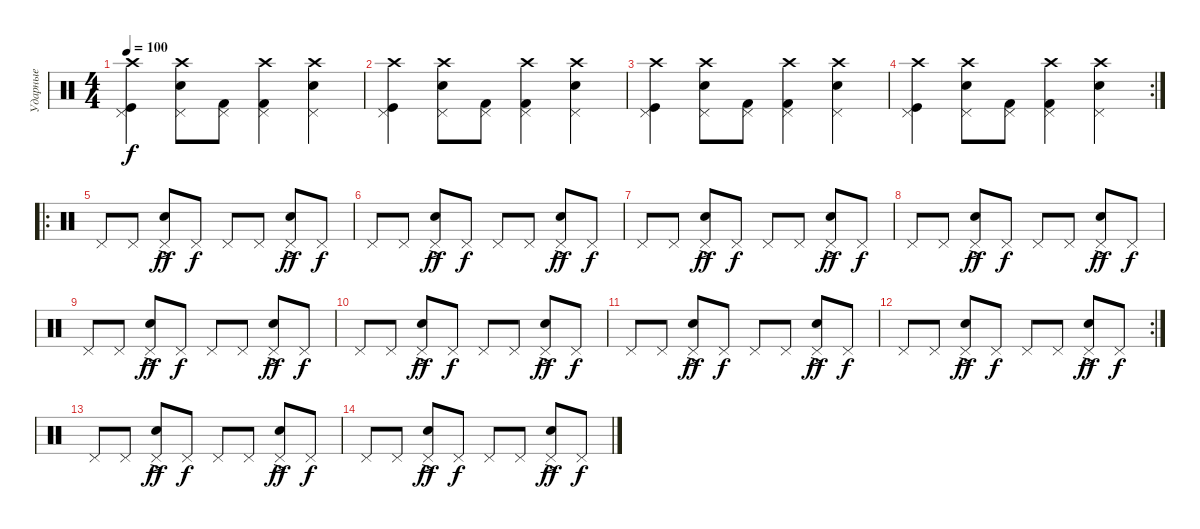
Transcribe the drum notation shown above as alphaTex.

\track ("Ударные" "Ударные") {instrument percussion}
\staff {score}
\articulation defaults
\ts (4 4)
\tempo 100
\clef neutral
\ks c
("Crash high (hit)" "Pedal Hi-Hat (hit)" "Kick (hit)").4{dy f} ("Crash high (hit)" "Pedal Hi-Hat (hit)" "Electric Snare (hit)").8 ("Pedal Hi-Hat (hit)" "Kick (hit) 2").8 ("Crash high (hit)" "Pedal Hi-Hat (hit)" "Kick (hit) 2").4 ("Crash high (hit)" "Pedal Hi-Hat (hit)" "Electric Snare (hit)").4 |
("Crash high (hit)" "Pedal Hi-Hat (hit)" "Kick (hit)").4 ("Crash high (hit)" "Pedal Hi-Hat (hit)" "Electric Snare (hit)").8 ("Pedal Hi-Hat (hit)" "Kick (hit) 2").8 ("Crash high (hit)" "Pedal Hi-Hat (hit)" "Kick (hit) 2").4 ("Crash high (hit)" "Pedal Hi-Hat (hit)" "Electric Snare (hit)").4 |
("Crash high (hit)" "Pedal Hi-Hat (hit)" "Kick (hit)").4 ("Crash high (hit)" "Pedal Hi-Hat (hit)" "Electric Snare (hit)").8 ("Pedal Hi-Hat (hit)" "Kick (hit) 2").8 ("Crash high (hit)" "Pedal Hi-Hat (hit)" "Kick (hit) 2").4 ("Crash high (hit)" "Pedal Hi-Hat (hit)" "Electric Snare (hit)").4 |
\rc 2
("Crash high (hit)" "Pedal Hi-Hat (hit)" "Kick (hit)").4 ("Crash high (hit)" "Pedal Hi-Hat (hit)" "Electric Snare (hit)").8 ("Pedal Hi-Hat (hit)" "Kick (hit) 2").8 ("Crash high (hit)" "Pedal Hi-Hat (hit)" "Kick (hit) 2").4 ("Crash high (hit)" "Pedal Hi-Hat (hit)" "Electric Snare (hit)").4 |
\ro "Pedal Hi-Hat (hit)".8 "Pedal Hi-Hat (hit)".8
("Pedal Hi-Hat (hit)"{ac} "Electric Snare (hit)").8{dy ff} "Pedal Hi-Hat (hit)".8{dy f} "Pedal Hi-Hat (hit)".8 "Pedal Hi-Hat (hit)".8 ("Pedal Hi-Hat (hit)"{ac} "Electric Snare (hit)").8{dy ff} "Pedal Hi-Hat (hit)".8{dy f} |
"Pedal Hi-Hat (hit)".8 "Pedal Hi-Hat (hit)".8 ("Pedal Hi-Hat (hit)"{ac} "Electric Snare (hit)").8{dy ff} "Pedal Hi-Hat (hit)".8{dy f} "Pedal Hi-Hat (hit)".8 "Pedal Hi-Hat (hit)".8 ("Pedal Hi-Hat (hit)"{ac} "Electric Snare (hit)").8{dy ff} "Pedal Hi-Hat (hit)".8{dy f} |
"Pedal Hi-Hat (hit)".8 "Pedal Hi-Hat (hit)".8 ("Pedal Hi-Hat (hit)"{ac} "Electric Snare (hit)").8{dy ff} "Pedal Hi-Hat (hit)".8{dy f} "Pedal Hi-Hat (hit)".8 "Pedal Hi-Hat (hit)".8 ("Pedal Hi-Hat (hit)"{ac} "Electric Snare (hit)").8{dy ff} "Pedal Hi-Hat (hit)".8{dy f} |
"Pedal Hi-Hat (hit)".8 "Pedal Hi-Hat (hit)".8 ("Pedal Hi-Hat (hit)"{ac} "Electric Snare (hit)").8{dy ff} "Pedal Hi-Hat (hit)".8{dy f} "Pedal Hi-Hat (hit)".8 "Pedal Hi-Hat (hit)".8 ("Pedal Hi-Hat (hit)"{ac} "Electric Snare (hit)").8{dy ff} "Pedal Hi-Hat (hit)".8{dy f} |
"Pedal Hi-Hat (hit)".8 "Pedal Hi-Hat (hit)".8 ("Pedal Hi-Hat (hit)"{ac} "Electric Snare (hit)").8{dy ff} "Pedal Hi-Hat (hit)".8{dy f} "Pedal Hi-Hat (hit)".8 "Pedal Hi-Hat (hit)".8 ("Pedal Hi-Hat (hit)"{ac} "Electric Snare (hit)").8{dy ff} "Pedal Hi-Hat (hit)".8{dy f} |
"Pedal Hi-Hat (hit)".8 "Pedal Hi-Hat (hit)".8 ("Pedal Hi-Hat (hit)"{ac} "Electric Snare (hit)").8{dy ff} "Pedal Hi-Hat (hit)".8{dy f} "Pedal Hi-Hat (hit)".8 "Pedal Hi-Hat (hit)".8 ("Pedal Hi-Hat (hit)"{ac} "Electric Snare (hit)").8{dy ff} "Pedal Hi-Hat (hit)".8{dy f} |
"Pedal Hi-Hat (hit)".8 "Pedal Hi-Hat (hit)".8 ("Pedal Hi-Hat (hit)"{ac} "Electric Snare (hit)").8{dy ff} "Pedal Hi-Hat (hit)".8{dy f} "Pedal Hi-Hat (hit)".8 "Pedal Hi-Hat (hit)".8 ("Pedal Hi-Hat (hit)"{ac} "Electric Snare (hit)").8{dy ff} "Pedal Hi-Hat (hit)".8{dy f} |
\rc 2 "Pedal Hi-Hat (hit)".8 "Pedal Hi-Hat (hit)".8
("Pedal Hi-Hat (hit)"{ac} "Electric Snare (hit)").8{dy ff} "Pedal Hi-Hat (hit)".8{dy f} "Pedal Hi-Hat (hit)".8 "Pedal Hi-Hat (hit)".8 ("Pedal Hi-Hat (hit)"{ac} "Electric Snare (hit)").8{dy ff} "Pedal Hi-Hat (hit)".8{dy f} |
"Pedal Hi-Hat (hit)".8 "Pedal Hi-Hat (hit)".8 ("Pedal Hi-Hat (hit)"{ac} "Electric Snare (hit)").8{dy ff} "Pedal Hi-Hat (hit)".8{dy f} "Pedal Hi-Hat (hit)".8 "Pedal Hi-Hat (hit)".8 ("Pedal Hi-Hat (hit)"{ac} "Electric Snare (hit)").8{dy ff} "Pedal Hi-Hat (hit)".8{dy f} |
"Pedal Hi-Hat (hit)".8 "Pedal Hi-Hat (hit)".8 ("Pedal Hi-Hat (hit)"{ac} "Electric Snare (hit)").8{dy ff} "Pedal Hi-Hat (hit)".8{dy f} "Pedal Hi-Hat (hit)".8 "Pedal Hi-Hat (hit)".8 ("Pedal Hi-Hat (hit)"{ac} "Electric Snare (hit)").8{dy ff} "Pedal Hi-Hat (hit)".8{dy f}
